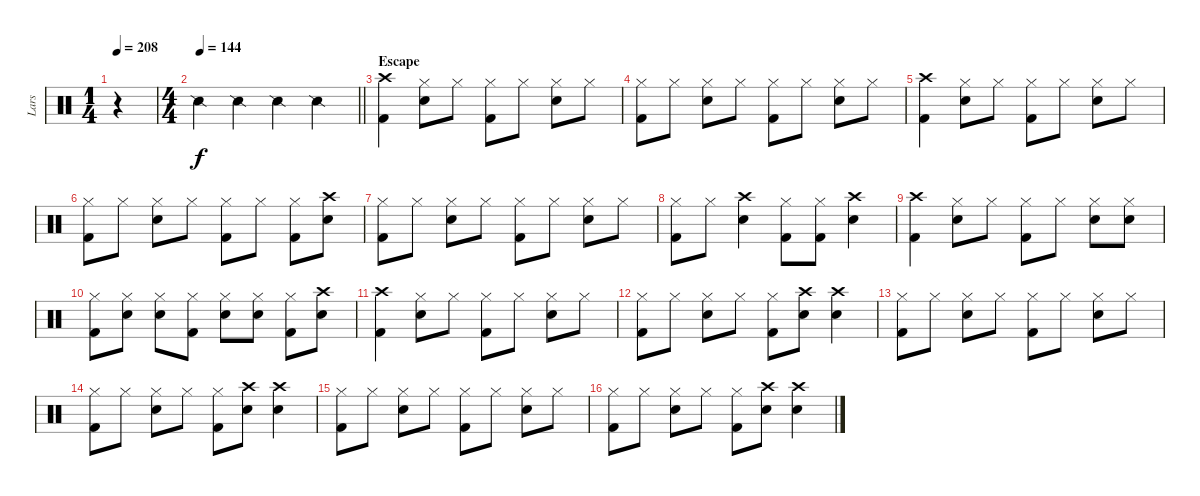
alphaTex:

\track ("Lars" "Lars") {instrument percussion}
\staff {score}
\articulation defaults
\ts (1 4)
\tempo 208
\clef neutral
\ks c
r.4{dy f} |
\ts (4 4)
\tempo 144
\barLineRight lightlight "Snare (side stick) 2".4 "Snare (side stick) 2".4 "Snare (side stick) 2".4 "Snare (side stick) 2".4
|
\section ("" "Escape")
("Crash high (hit)" "Kick (hit) 2").4 ("Hi-Hat (closed)" "Snare (hit) 2").8 "Hi-Hat (closed)".8 ("Hi-Hat (closed)" "Kick (hit) 2").8 "Hi-Hat (closed)".8 ("Hi-Hat (closed)" "Snare (hit) 2").8 "Hi-Hat (closed)".8 |
("Hi-Hat (closed)" "Kick (hit) 2").8 "Hi-Hat (closed)".8 ("Hi-Hat (closed)" "Snare (hit) 2").8 "Hi-Hat (closed)".8 ("Hi-Hat (closed)" "Kick (hit) 2").8 "Hi-Hat (closed)".8 ("Hi-Hat (closed)" "Snare (hit) 2").8 "Hi-Hat (closed)".8 |
("Crash high (hit)" "Kick (hit) 2").4 ("Hi-Hat (closed)" "Snare (hit) 2").8 "Hi-Hat (closed)".8 ("Hi-Hat (closed)" "Kick (hit) 2").8 "Hi-Hat (closed)".8 ("Hi-Hat (closed)" "Snare (hit) 2").8 "Hi-Hat (closed)".8 |
("Hi-Hat (closed)" "Kick (hit) 2").8 "Hi-Hat (closed)".8 ("Hi-Hat (closed)" "Snare (hit) 2").8 "Hi-Hat (closed)".8 ("Hi-Hat (closed)" "Kick (hit) 2").8 "Hi-Hat (closed)".8 ("Hi-Hat (closed)" "Kick (hit) 2").8 ("Crash high (hit)" "Snare (hit) 2").8 |
("Hi-Hat (closed)" "Kick (hit) 2").8 "Hi-Hat (closed)".8 ("Hi-Hat (closed)" "Snare (hit) 2").8 "Hi-Hat (closed)".8 ("Hi-Hat (closed)" "Kick (hit) 2").8 "Hi-Hat (closed)".8 ("Hi-Hat (closed)" "Snare (hit) 2").8 "Hi-Hat (closed)".8 |
("Hi-Hat (closed)" "Kick (hit) 2").8 "Hi-Hat (closed)".8 ("Crash high (hit)" "Snare (hit) 2").4 ("Hi-Hat (closed)" "Kick (hit) 2").8 ("Hi-Hat (closed)" "Kick (hit) 2").8 ("Crash high (hit)" "Snare (hit) 2").4 |
("Crash high (hit)" "Kick (hit) 2").4 ("Hi-Hat (closed)" "Snare (hit) 2").8 "Hi-Hat (closed)".8 ("Hi-Hat (closed)" "Kick (hit) 2").8 "Hi-Hat (closed)".8 ("Hi-Hat (closed)" "Snare (hit) 2").8 ("Hi-Hat (closed)" "Snare (hit) 2").8 |
("Hi-Hat (closed)" "Kick (hit) 2").8 ("Hi-Hat (closed)" "Snare (hit) 2").8 ("Hi-Hat (closed)" "Snare (hit) 2").8 ("Hi-Hat (closed)" "Kick (hit) 2").8 ("Hi-Hat (closed)" "Snare (hit) 2").8 ("Hi-Hat (closed)" "Snare (hit) 2").8 ("Hi-Hat (closed)" "Kick (hit) 2").8 ("Crash high (hit)" "Snare (hit) 2").8 |
("Crash high (hit)" "Kick (hit) 2").4 ("Hi-Hat (closed)" "Snare (hit) 2").8 "Hi-Hat (closed)".8 ("Hi-Hat (closed)" "Kick (hit) 2").8 "Hi-Hat (closed)".8 ("Hi-Hat (closed)" "Snare (hit) 2").8 "Hi-Hat (closed)".8 |
("Hi-Hat (closed)" "Kick (hit) 2").8 "Hi-Hat (closed)".8 ("Hi-Hat (closed)" "Snare (hit) 2").8 "Hi-Hat (closed)".8 ("Hi-Hat (closed)" "Kick (hit) 2").8 ("Crash high (hit)" "Snare (hit) 2").8 ("Crash high (hit)" "Snare (hit) 2").4 |
("Hi-Hat (closed)" "Kick (hit) 2").8 "Hi-Hat (closed)".8 ("Hi-Hat (closed)" "Snare (hit) 2").8 "Hi-Hat (closed)".8 ("Hi-Hat (closed)" "Kick (hit) 2").8 "Hi-Hat (closed)".8 ("Hi-Hat (closed)" "Snare (hit) 2").8 "Hi-Hat (closed)".8 |
("Hi-Hat (closed)" "Kick (hit) 2").8 "Hi-Hat (closed)".8 ("Hi-Hat (closed)" "Snare (hit) 2").8 "Hi-Hat (closed)".8 ("Hi-Hat (closed)" "Kick (hit) 2").8 ("Crash high (hit)" "Snare (hit) 2").8 ("Crash high (hit)" "Snare (hit) 2").4 |
("Hi-Hat (closed)" "Kick (hit) 2").8 "Hi-Hat (closed)".8 ("Hi-Hat (closed)" "Snare (hit) 2").8 "Hi-Hat (closed)".8 ("Hi-Hat (closed)" "Kick (hit) 2").8 "Hi-Hat (closed)".8 ("Hi-Hat (closed)" "Snare (hit) 2").8 "Hi-Hat (closed)".8 |
("Hi-Hat (closed)" "Kick (hit) 2").8 "Hi-Hat (closed)".8 ("Hi-Hat (closed)" "Snare (hit) 2").8 "Hi-Hat (closed)".8 ("Hi-Hat (closed)" "Kick (hit) 2").8 ("Crash high (hit)" "Snare (hit) 2").8 ("Crash high (hit)" "Snare (hit) 2").4
